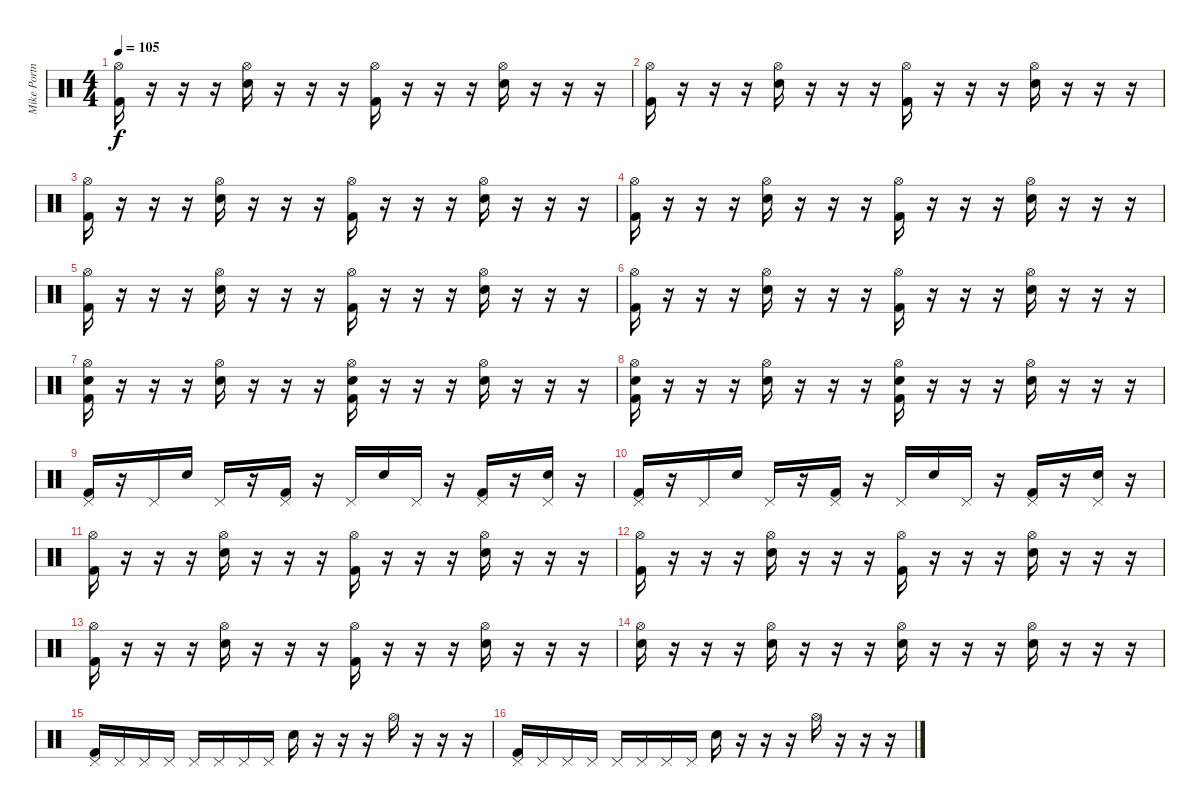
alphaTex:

\track ("Mike Portnoy" "Mike Portn") {instrument percussion}
\staff {score}
\articulation defaults
\ts (4 4)
\tempo 105
\clef neutral
\ks c
("Hi-Hat (open)" "Kick (hit) 2").16{dy f} r.16 r.16 r.16 ("Hi-Hat (open)" "Electric Snare (hit)").16 r.16 r.16 r.16 ("Hi-Hat (open)" "Kick (hit) 2").16 r.16 r.16 r.16 ("Hi-Hat (open)" "Electric Snare (hit)").16 r.16 r.16 r.16 |
("Hi-Hat (open)" "Kick (hit) 2").16 r.16 r.16 r.16 ("Hi-Hat (open)" "Electric Snare (hit)").16 r.16 r.16 r.16 ("Hi-Hat (open)" "Kick (hit) 2").16 r.16 r.16 r.16 ("Hi-Hat (open)" "Electric Snare (hit)").16 r.16 r.16 r.16 |
("Hi-Hat (open)" "Kick (hit) 2").16 r.16 r.16 r.16 ("Hi-Hat (open)" "Electric Snare (hit)").16 r.16 r.16 r.16 ("Hi-Hat (open)" "Kick (hit) 2").16 r.16 r.16 r.16 ("Hi-Hat (open)" "Electric Snare (hit)").16 r.16 r.16 r.16 |
("Hi-Hat (open)" "Kick (hit) 2").16 r.16 r.16 r.16 ("Hi-Hat (open)" "Electric Snare (hit)").16 r.16 r.16 r.16 ("Hi-Hat (open)" "Kick (hit) 2").16 r.16 r.16 r.16 ("Hi-Hat (open)" "Electric Snare (hit)").16 r.16 r.16 r.16 |
("Hi-Hat (open)" "Kick (hit) 2").16 r.16 r.16 r.16 ("Hi-Hat (open)" "Electric Snare (hit)").16 r.16 r.16 r.16 ("Hi-Hat (open)" "Kick (hit) 2").16 r.16 r.16 r.16 ("Hi-Hat (open)" "Electric Snare (hit)").16 r.16 r.16 r.16 |
("Hi-Hat (open)" "Kick (hit) 2").16 r.16 r.16 r.16 ("Hi-Hat (open)" "Electric Snare (hit)").16 r.16 r.16 r.16 ("Hi-Hat (open)" "Kick (hit) 2").16 r.16 r.16 r.16 ("Hi-Hat (open)" "Electric Snare (hit)").16 r.16 r.16 r.16 |
("Hi-Hat (open)" "Kick (hit) 2" "Electric Snare (hit)").16 r.16 r.16 r.16 ("Hi-Hat (open)" "Electric Snare (hit)").16 r.16 r.16 r.16 ("Hi-Hat (open)" "Kick (hit) 2" "Electric Snare (hit)").16 r.16 r.16 r.16 ("Hi-Hat (open)" "Electric Snare (hit)").16 r.16 r.16 r.16 |
("Hi-Hat (open)" "Kick (hit) 2" "Electric Snare (hit)").16 r.16 r.16 r.16 ("Hi-Hat (open)" "Electric Snare (hit)").16 r.16 r.16 r.16 ("Hi-Hat (open)" "Kick (hit) 2" "Electric Snare (hit)").16 r.16 r.16 r.16 ("Hi-Hat (open)" "Electric Snare (hit)").16 r.16 r.16 r.16 |
("Pedal Hi-Hat (hit)" "Kick (hit) 2").16 r.16 "Pedal Hi-Hat (hit)".16 "Electric Snare (hit)".16 "Pedal Hi-Hat (hit)".16 r.16 ("Pedal Hi-Hat (hit)" "Kick (hit) 2").16 r.16 "Pedal Hi-Hat (hit)".16 "Electric Snare (hit)".16 "Pedal Hi-Hat (hit)".16 r.16 ("Pedal Hi-Hat (hit)" "Kick (hit) 2").16 r.16 ("Pedal Hi-Hat (hit)" "Electric Snare (hit)").16 r.16 |
("Pedal Hi-Hat (hit)" "Kick (hit) 2").16 r.16 "Pedal Hi-Hat (hit)".16 "Electric Snare (hit)".16 "Pedal Hi-Hat (hit)".16 r.16 ("Pedal Hi-Hat (hit)" "Kick (hit) 2").16 r.16 "Pedal Hi-Hat (hit)".16 "Electric Snare (hit)".16 "Pedal Hi-Hat (hit)".16 r.16 ("Pedal Hi-Hat (hit)" "Kick (hit) 2").16 r.16 ("Pedal Hi-Hat (hit)" "Electric Snare (hit)").16 r.16 |
("Hi-Hat (open)" "Kick (hit) 2").16 r.16 r.16 r.16 ("Hi-Hat (open)" "Electric Snare (hit)").16 r.16 r.16 r.16 ("Hi-Hat (open)" "Kick (hit) 2").16 r.16 r.16 r.16 ("Hi-Hat (open)" "Electric Snare (hit)").16 r.16 r.16 r.16 |
("Hi-Hat (open)" "Kick (hit) 2").16 r.16 r.16 r.16 ("Hi-Hat (open)" "Electric Snare (hit)").16 r.16 r.16 r.16 ("Hi-Hat (open)" "Kick (hit) 2").16 r.16 r.16 r.16 ("Hi-Hat (open)" "Electric Snare (hit)").16 r.16 r.16 r.16 |
("Hi-Hat (open)" "Kick (hit) 2").16 r.16 r.16 r.16 ("Hi-Hat (open)" "Electric Snare (hit)").16 r.16 r.16 r.16 ("Hi-Hat (open)" "Kick (hit) 2").16 r.16 r.16 r.16 ("Hi-Hat (open)" "Electric Snare (hit)").16 r.16 r.16 r.16 |
("Hi-Hat (open)" "Electric Snare (hit)").16 r.16 r.16 r.16 ("Hi-Hat (open)" "Electric Snare (hit)").16 r.16 r.16 r.16 ("Hi-Hat (open)" "Electric Snare (hit)").16 r.16 r.16 r.16 ("Hi-Hat (open)" "Electric Snare (hit)").16 r.16 r.16 r.16 |
("Pedal Hi-Hat (hit)" "Kick (hit) 2").16 "Pedal Hi-Hat (hit)".16 "Pedal Hi-Hat (hit)".16 "Pedal Hi-Hat (hit)".16 "Pedal Hi-Hat (hit)".16 "Pedal Hi-Hat (hit)".16 "Pedal Hi-Hat (hit)".16 "Pedal Hi-Hat (hit)".16 "Electric Snare (hit)".16 r.16 r.16 r.16 "Hi-Hat (open)".16 r.16 r.16 r.16 |
("Pedal Hi-Hat (hit)" "Kick (hit) 2").16 "Pedal Hi-Hat (hit)".16 "Pedal Hi-Hat (hit)".16 "Pedal Hi-Hat (hit)".16 "Pedal Hi-Hat (hit)".16 "Pedal Hi-Hat (hit)".16 "Pedal Hi-Hat (hit)".16 "Pedal Hi-Hat (hit)".16 "Electric Snare (hit)".16 r.16 r.16 r.16 "Hi-Hat (open)".16 r.16 r.16 r.16
